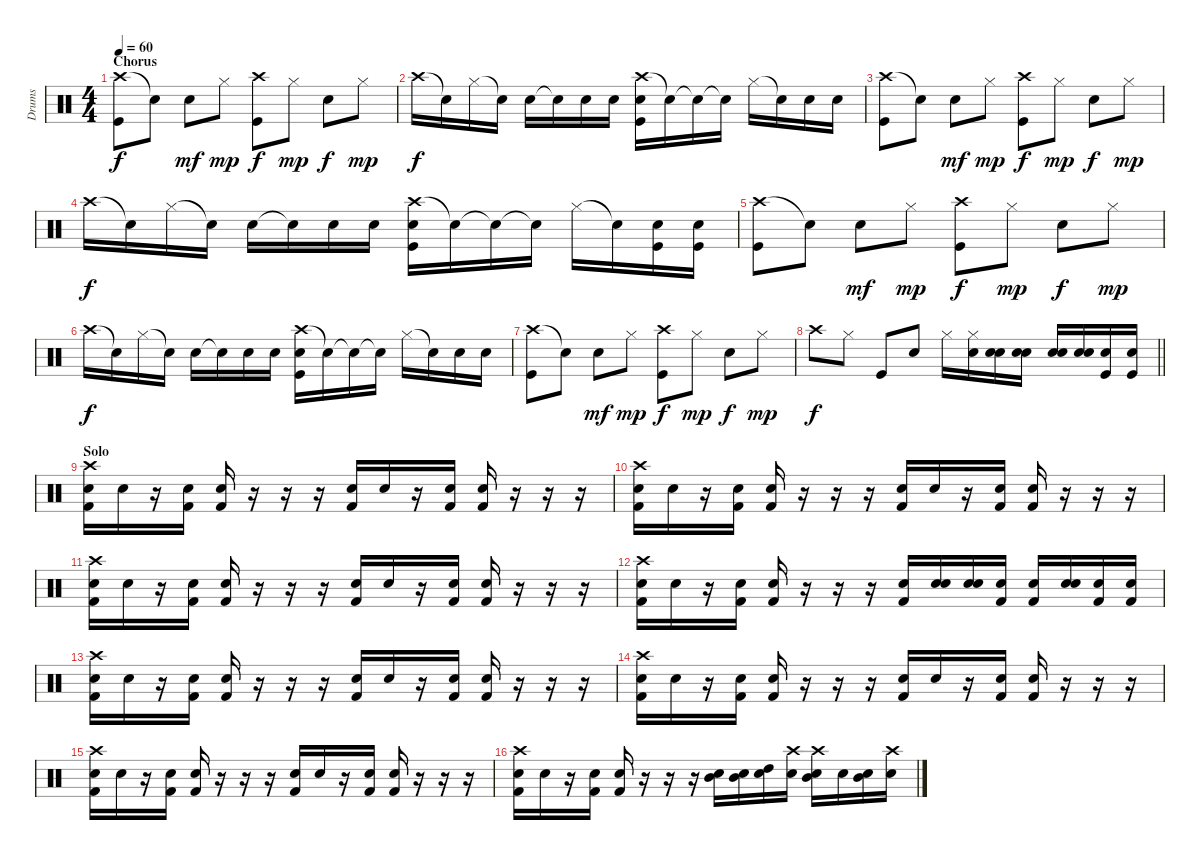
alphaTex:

\track ("Drums" "Drums") {instrument percussion}
\staff {score}
\articulation defaults
\ts (4 4)
\section ("" "Chorus")
\tempo 60
\clef neutral
\ks c
("Crash high (hit)" "Kick (hit)").8{dy f} "Snare (hit)"{t}.8 "Snare (hit) 2".8{dy mf} "Hi-Hat (closed)".8{dy mp} ("Crash high (hit)" "Kick (hit)").8{dy f} "Hi-Hat (closed)".8{dy mp} "Snare (hit) 2".8{dy f} "Hi-Hat (closed)".8{dy mp} |
"Crash high (hit)".16{dy f} "Snare (hit)"{t}.16 "Hi-Hat (closed)".16 "Snare (hit)"{t}.16 "Snare (hit) 2".16 "Snare (hit)"{t}.16 "Snare (hit) 2".16 "Snare (hit) 2".16 ("Crash high (hit)" "Snare (hit) 2" "Kick (hit)").16 "Snare (hit)"{t}.16 "Snare (hit)"{t}.16 "Snare (hit) 2"{t}.16 "Hi-Hat (closed)".16 "Snare (hit)"{t}.16 "Snare (hit) 2".16 "Snare (hit) 2".16 |
("Crash high (hit)" "Kick (hit)").8 "Snare (hit)"{t}.8 "Snare (hit) 2".8{dy mf} "Hi-Hat (closed)".8{dy mp} ("Crash high (hit)" "Kick (hit)").8{dy f} "Hi-Hat (closed)".8{dy mp} "Snare (hit) 2".8{dy f} "Hi-Hat (closed)".8{dy mp} |
"Crash high (hit)".16{dy f} "Snare (hit)"{t}.16 "Hi-Hat (closed)".16 "Snare (hit)"{t}.16 "Snare (hit) 2".16 "Snare (hit)"{t}.16 "Snare (hit) 2".16 "Snare (hit) 2".16 ("Crash high (hit)" "Snare (hit) 2" "Kick (hit)").16 "Snare (hit)"{t}.16 "Snare (hit)"{t}.16 "Snare (hit) 2"{t}.16 "Hi-Hat (closed)".16 "Snare (hit)"{t}.16 ("Snare (hit) 2" "Kick (hit)").16 ("Snare (hit) 2" "Kick (hit)").16 |
("Crash high (hit)" "Kick (hit)").8 "Snare (hit)"{t}.8 "Snare (hit) 2".8{dy mf} "Hi-Hat (closed)".8{dy mp} ("Crash high (hit)" "Kick (hit)").8{dy f} "Hi-Hat (closed)".8{dy mp} "Snare (hit) 2".8{dy f} "Hi-Hat (closed)".8{dy mp} |
"Crash high (hit)".16{dy f} "Snare (hit)"{t}.16 "Hi-Hat (closed)".16 "Snare (hit)"{t}.16 "Snare (hit) 2".16 "Snare (hit)"{t}.16 "Snare (hit) 2".16 "Snare (hit) 2".16 ("Crash high (hit)" "Snare (hit) 2" "Kick (hit)").16 "Snare (hit)"{t}.16 "Snare (hit)"{t}.16 "Snare (hit) 2"{t}.16 "Hi-Hat (closed)".16 "Snare (hit)"{t}.16 "Snare (hit) 2".16 "Snare (hit) 2".16 |
("Crash high (hit)" "Kick (hit)").8 "Snare (hit)"{t}.8 "Snare (hit) 2".8{dy mf} "Hi-Hat (closed)".8{dy mp} ("Crash high (hit)" "Kick (hit)").8{dy f} "Hi-Hat (closed)".8{dy mp} "Snare (hit) 2".8{dy f} "Hi-Hat (closed)".8{dy mp} |
\barLineRight lightlight "Crash high (hit)".8{dy f} "Hi-Hat (closed)".8 "Kick (hit)".8 "Snare (hit) 2".8 "Hi-Hat (closed)".16
("Hi-Hat (closed)" "Snare (hit) 2").16 ("Snare (hit) 2" "Snare (hit) 2").16 ("Snare (hit) 2" "Snare (hit) 2").16 ("Snare (hit) 2" "Snare (hit) 2").16 ("Snare (hit) 2" "Snare (hit) 2").16 ("Snare (hit) 2" "Kick (hit)").16 ("Snare (hit) 2" "Kick (hit)").16 |
\section ("" "Solo")
("Crash high (hit)" "Snare (hit) 2" "Kick (hit) 2").16 "Snare (hit) 2".16 r.16 ("Snare (hit) 2" "Kick (hit) 2").16 ("Snare (hit) 2" "Kick (hit) 2").16 r.16 r.16 r.16 ("Snare (hit) 2" "Kick (hit) 2").16 "Snare (hit) 2".16 r.16 ("Snare (hit) 2" "Kick (hit) 2").16 ("Snare (hit) 2" "Kick (hit) 2").16 r.16 r.16 r.16 |
("Crash high (hit)" "Snare (hit) 2" "Kick (hit) 2").16 "Snare (hit) 2".16 r.16 ("Snare (hit) 2" "Kick (hit) 2").16 ("Snare (hit) 2" "Kick (hit) 2").16 r.16 r.16 r.16 ("Snare (hit) 2" "Kick (hit) 2").16 "Snare (hit) 2".16 r.16 ("Snare (hit) 2" "Kick (hit) 2").16 ("Snare (hit) 2" "Kick (hit) 2").16 r.16 r.16 r.16 |
("Crash high (hit)" "Snare (hit) 2" "Kick (hit) 2").16 "Snare (hit) 2".16 r.16 ("Snare (hit) 2" "Kick (hit) 2").16 ("Snare (hit) 2" "Kick (hit) 2").16 r.16 r.16 r.16 ("Snare (hit) 2" "Kick (hit) 2").16 "Snare (hit) 2".16 r.16 ("Snare (hit) 2" "Kick (hit) 2").16 ("Snare (hit) 2" "Kick (hit) 2").16 r.16 r.16 r.16 |
("Crash high (hit)" "Snare (hit) 2" "Kick (hit) 2").16 "Snare (hit) 2".16 r.16 ("Snare (hit) 2" "Kick (hit) 2").16 ("Snare (hit) 2" "Kick (hit) 2").16 r.16 r.16 r.16 ("Snare (hit) 2" "Kick (hit) 2").16 ("Snare (hit) 2" "Snare (hit) 2").16 ("Snare (hit) 2" "Snare (hit) 2").16 ("Snare (hit) 2" "Kick (hit) 2").16 ("Snare (hit) 2" "Kick (hit) 2").16 ("Snare (hit) 2" "Snare (hit) 2").16 ("Snare (hit) 2" "Kick (hit) 2").16 ("Snare (hit) 2" "Kick (hit) 2").16 |
("Crash high (hit)" "Snare (hit) 2" "Kick (hit) 2").16 "Snare (hit) 2".16 r.16 ("Snare (hit) 2" "Kick (hit) 2").16 ("Snare (hit) 2" "Kick (hit) 2").16 r.16 r.16 r.16 ("Snare (hit) 2" "Kick (hit) 2").16 "Snare (hit) 2".16 r.16 ("Snare (hit) 2" "Kick (hit) 2").16 ("Snare (hit) 2" "Kick (hit) 2").16 r.16 r.16 r.16 |
("Crash high (hit)" "Snare (hit) 2" "Kick (hit) 2").16 "Snare (hit) 2".16 r.16 ("Snare (hit) 2" "Kick (hit) 2").16 ("Snare (hit) 2" "Kick (hit) 2").16 r.16 r.16 r.16 ("Snare (hit) 2" "Kick (hit) 2").16 "Snare (hit) 2".16 r.16 ("Snare (hit) 2" "Kick (hit) 2").16 ("Snare (hit) 2" "Kick (hit) 2").16 r.16 r.16 r.16 |
("Crash high (hit)" "Snare (hit) 2" "Kick (hit) 2").16 "Snare (hit) 2".16 r.16 ("Snare (hit) 2" "Kick (hit) 2").16 ("Snare (hit) 2" "Kick (hit) 2").16 r.16 r.16 r.16 ("Snare (hit) 2" "Kick (hit) 2").16 "Snare (hit) 2".16 r.16 ("Snare (hit) 2" "Kick (hit) 2").16 ("Snare (hit) 2" "Kick (hit) 2").16 r.16 r.16 r.16 |
("Crash high (hit)" "Snare (hit) 2" "Kick (hit) 2").16 "Snare (hit) 2".16 r.16 ("Snare (hit) 2" "Kick (hit) 2").16 ("Snare (hit) 2" "Kick (hit) 2").16 r.16 r.16 r.16 ("Snare (hit) 2" "Mid Tom (hit)").16 ("Snare (hit) 2" "Mid Tom (hit)").16 ("Snare (hit) 2" "High Tom (hit)").16 ("Crash high (hit)" "Snare (hit) 2").16 ("Crash high (hit)" "Snare (hit) 2" "Mid Tom (hit)").16 "Snare (hit) 2".16 ("Snare (hit) 2" "Mid Tom (hit)").16 ("Crash high (hit)" "Snare (hit) 2").16
